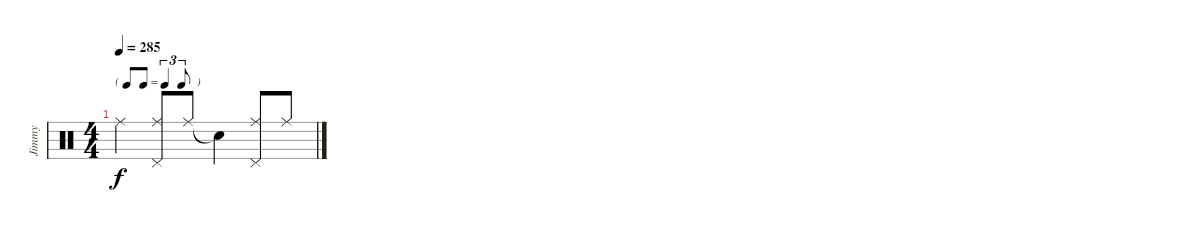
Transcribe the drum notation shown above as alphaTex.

\track ("Jimmy" "Jimmy") {instrument percussion}
\staff {score}
\articulation defaults
\ts (4 4)
\tf triplet8th
\tempo 285
\clef neutral
\ks c "Ride (middle)".4{dy f}
("Ride (middle)" "Pedal Hi-Hat (hit)").8 "Ride (middle)".8 "Snare (hit)"{t}.4 ("Ride (middle)" "Pedal Hi-Hat (hit)").8 "Ride (middle)".8
